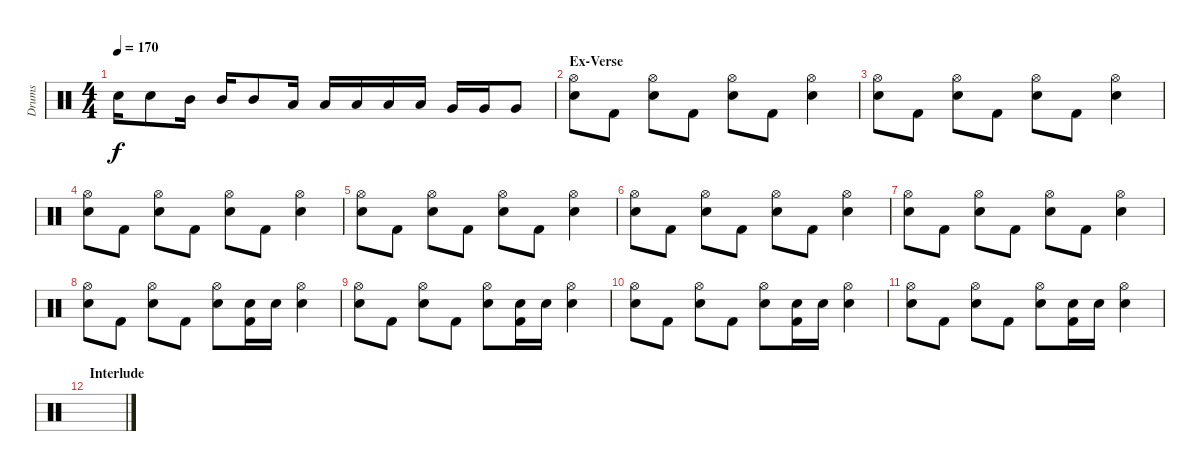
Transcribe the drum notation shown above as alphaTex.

\track ("Drums" "Drums") {instrument percussion}
\staff {score}
\articulation defaults
\ts (4 4)
\tempo 170
\clef neutral
\ks c "Snare (hit) 2".16{dy f} "Snare (hit) 2".8 "Mid Tom (hit)".16 "Mid Tom (hit)".16 "Mid Tom (hit)".8 "Low Tom (hit)".16 "Low Tom (hit)".16 "Low Tom (hit)".16 "Low Tom (hit)".16 "Low Tom (hit)".16 "Very Low Tom (hit)".16 "Very Low Tom (hit)".16 "Very Low Tom (hit)".8
|
\section ("" "Ex-Verse")
("Hi-Hat (open)" "Snare (hit) 2").8 "Kick (hit) 2".8 ("Hi-Hat (open)" "Snare (hit) 2").8 "Kick (hit) 2".8 ("Hi-Hat (open)" "Snare (hit) 2").8 "Kick (hit) 2".8 ("Hi-Hat (open)" "Snare (hit) 2").4 |
("Hi-Hat (open)" "Snare (hit) 2").8 "Kick (hit) 2".8 ("Hi-Hat (open)" "Snare (hit) 2").8 "Kick (hit) 2".8 ("Hi-Hat (open)" "Snare (hit) 2").8 "Kick (hit) 2".8 ("Hi-Hat (open)" "Snare (hit) 2").4 |
("Hi-Hat (open)" "Snare (hit) 2").8 "Kick (hit) 2".8 ("Hi-Hat (open)" "Snare (hit) 2").8 "Kick (hit) 2".8 ("Hi-Hat (open)" "Snare (hit) 2").8 "Kick (hit) 2".8 ("Hi-Hat (open)" "Snare (hit) 2").4 |
("Hi-Hat (open)" "Snare (hit) 2").8 "Kick (hit) 2".8 ("Hi-Hat (open)" "Snare (hit) 2").8 "Kick (hit) 2".8 ("Hi-Hat (open)" "Snare (hit) 2").8 "Kick (hit) 2".8 ("Hi-Hat (open)" "Snare (hit) 2").4 |
("Hi-Hat (open)" "Snare (hit) 2").8 "Kick (hit) 2".8 ("Hi-Hat (open)" "Snare (hit) 2").8 "Kick (hit) 2".8 ("Hi-Hat (open)" "Snare (hit) 2").8 "Kick (hit) 2".8 ("Hi-Hat (open)" "Snare (hit) 2").4 |
("Hi-Hat (open)" "Snare (hit) 2").8 "Kick (hit) 2".8 ("Hi-Hat (open)" "Snare (hit) 2").8 "Kick (hit) 2".8 ("Hi-Hat (open)" "Snare (hit) 2").8 "Kick (hit) 2".8 ("Hi-Hat (open)" "Snare (hit) 2").4 |
("Hi-Hat (open)" "Snare (hit) 2").8 "Kick (hit) 2".8 ("Hi-Hat (open)" "Snare (hit) 2").8 "Kick (hit) 2".8 ("Hi-Hat (open)" "Snare (hit) 2").8 ("Snare (hit) 2" "Kick (hit) 2").16 "Snare (hit) 2".16 ("Hi-Hat (open)" "Snare (hit) 2").4 |
("Hi-Hat (open)" "Snare (hit) 2").8 "Kick (hit) 2".8 ("Hi-Hat (open)" "Snare (hit) 2").8 "Kick (hit) 2".8 ("Hi-Hat (open)" "Snare (hit) 2").8 ("Snare (hit) 2" "Kick (hit) 2").16 "Snare (hit) 2".16 ("Hi-Hat (open)" "Snare (hit) 2").4 |
("Hi-Hat (open)" "Snare (hit) 2").8 "Kick (hit) 2".8 ("Hi-Hat (open)" "Snare (hit) 2").8 "Kick (hit) 2".8 ("Hi-Hat (open)" "Snare (hit) 2").8 ("Snare (hit) 2" "Kick (hit) 2").16 "Snare (hit) 2".16 ("Hi-Hat (open)" "Snare (hit) 2").4 |
("Hi-Hat (open)" "Snare (hit) 2").8 "Kick (hit) 2".8 ("Hi-Hat (open)" "Snare (hit) 2").8 "Kick (hit) 2".8 ("Hi-Hat (open)" "Snare (hit) 2").8 ("Snare (hit) 2" "Kick (hit) 2").16 "Snare (hit) 2".16 ("Hi-Hat (open)" "Snare (hit) 2").4 |
\section ("" "Interlude")
